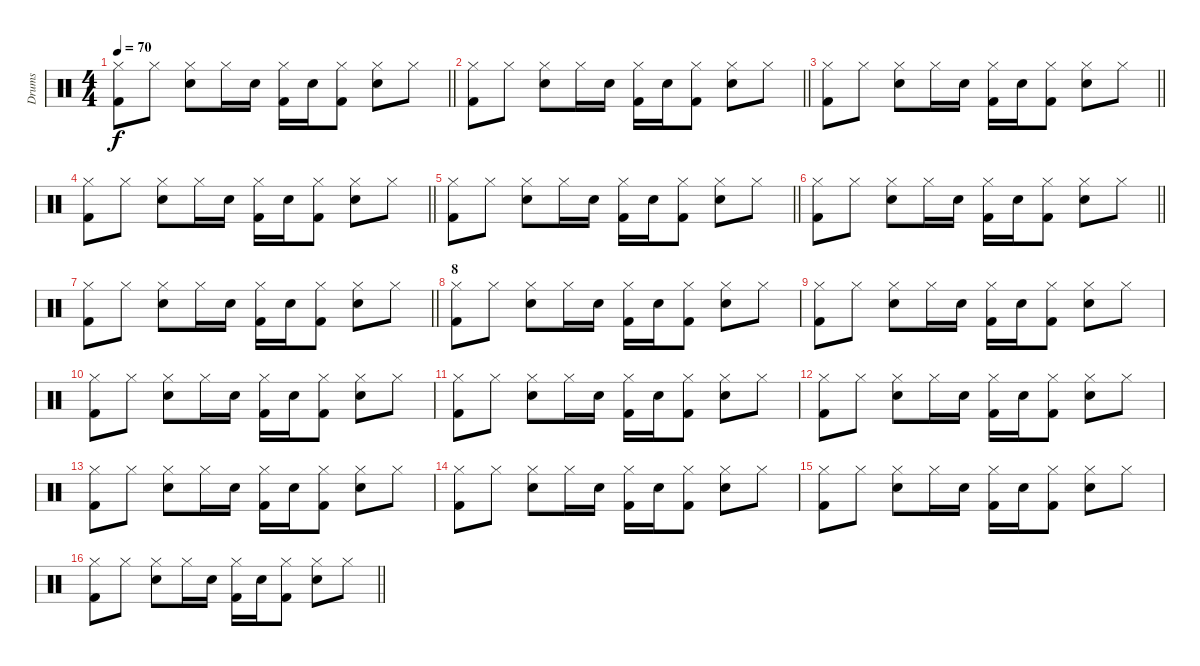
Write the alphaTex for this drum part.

\track ("Drums" "Drums") {instrument percussion}
\staff {score}
\articulation defaults
\ts (4 4)
\tempo 70
\clef neutral
\barLineRight lightlight
\ks c
("Kick (hit) 2" "Hi-Hat (closed)").8{dy f} "Hi-Hat (closed)".8 ("Snare (hit) 2" "Hi-Hat (closed)").8 "Hi-Hat (closed)".16 "Snare (hit) 2".16 ("Kick (hit) 2" "Hi-Hat (closed)").16 "Snare (hit) 2".16 ("Kick (hit) 2" "Hi-Hat (closed)").8 ("Snare (hit) 2" "Hi-Hat (closed)").8 "Hi-Hat (closed)".8 |
\barLineRight lightlight
("Kick (hit) 2" "Hi-Hat (closed)").8 "Hi-Hat (closed)".8 ("Snare (hit) 2" "Hi-Hat (closed)").8 "Hi-Hat (closed)".16 "Snare (hit) 2".16 ("Kick (hit) 2" "Hi-Hat (closed)").16 "Snare (hit) 2".16 ("Kick (hit) 2" "Hi-Hat (closed)").8 ("Snare (hit) 2" "Hi-Hat (closed)").8 "Hi-Hat (closed)".8 |
\barLineRight lightlight
("Kick (hit) 2" "Hi-Hat (closed)").8 "Hi-Hat (closed)".8 ("Snare (hit) 2" "Hi-Hat (closed)").8 "Hi-Hat (closed)".16 "Snare (hit) 2".16 ("Kick (hit) 2" "Hi-Hat (closed)").16 "Snare (hit) 2".16 ("Kick (hit) 2" "Hi-Hat (closed)").8 ("Snare (hit) 2" "Hi-Hat (closed)").8 "Hi-Hat (closed)".8 |
\barLineRight lightlight
("Kick (hit) 2" "Hi-Hat (closed)").8 "Hi-Hat (closed)".8 ("Snare (hit) 2" "Hi-Hat (closed)").8 "Hi-Hat (closed)".16 "Snare (hit) 2".16 ("Kick (hit) 2" "Hi-Hat (closed)").16 "Snare (hit) 2".16 ("Kick (hit) 2" "Hi-Hat (closed)").8 ("Snare (hit) 2" "Hi-Hat (closed)").8 "Hi-Hat (closed)".8 |
\barLineRight lightlight
("Kick (hit) 2" "Hi-Hat (closed)").8 "Hi-Hat (closed)".8 ("Snare (hit) 2" "Hi-Hat (closed)").8 "Hi-Hat (closed)".16 "Snare (hit) 2".16 ("Kick (hit) 2" "Hi-Hat (closed)").16 "Snare (hit) 2".16 ("Kick (hit) 2" "Hi-Hat (closed)").8 ("Snare (hit) 2" "Hi-Hat (closed)").8 "Hi-Hat (closed)".8 |
\barLineRight lightlight
("Kick (hit) 2" "Hi-Hat (closed)").8 "Hi-Hat (closed)".8 ("Snare (hit) 2" "Hi-Hat (closed)").8 "Hi-Hat (closed)".16 "Snare (hit) 2".16 ("Kick (hit) 2" "Hi-Hat (closed)").16 "Snare (hit) 2".16 ("Kick (hit) 2" "Hi-Hat (closed)").8 ("Snare (hit) 2" "Hi-Hat (closed)").8 "Hi-Hat (closed)".8 |
\barLineRight lightlight
("Kick (hit) 2" "Hi-Hat (closed)").8 "Hi-Hat (closed)".8 ("Snare (hit) 2" "Hi-Hat (closed)").8 "Hi-Hat (closed)".16 "Snare (hit) 2".16 ("Kick (hit) 2" "Hi-Hat (closed)").16 "Snare (hit) 2".16 ("Kick (hit) 2" "Hi-Hat (closed)").8 ("Snare (hit) 2" "Hi-Hat (closed)").8 "Hi-Hat (closed)".8 |
\section ("" "8")
("Kick (hit) 2" "Hi-Hat (closed)").8 "Hi-Hat (closed)".8 ("Snare (hit) 2" "Hi-Hat (closed)").8 "Hi-Hat (closed)".16 "Snare (hit) 2".16 ("Kick (hit) 2" "Hi-Hat (closed)").16 "Snare (hit) 2".16 ("Kick (hit) 2" "Hi-Hat (closed)").8 ("Snare (hit) 2" "Hi-Hat (closed)").8 "Hi-Hat (closed)".8 |
("Kick (hit) 2" "Hi-Hat (closed)").8 "Hi-Hat (closed)".8 ("Snare (hit) 2" "Hi-Hat (closed)").8 "Hi-Hat (closed)".16 "Snare (hit) 2".16 ("Kick (hit) 2" "Hi-Hat (closed)").16 "Snare (hit) 2".16 ("Kick (hit) 2" "Hi-Hat (closed)").8 ("Snare (hit) 2" "Hi-Hat (closed)").8 "Hi-Hat (closed)".8 |
("Kick (hit) 2" "Hi-Hat (closed)").8 "Hi-Hat (closed)".8 ("Snare (hit) 2" "Hi-Hat (closed)").8 "Hi-Hat (closed)".16 "Snare (hit) 2".16 ("Kick (hit) 2" "Hi-Hat (closed)").16 "Snare (hit) 2".16 ("Kick (hit) 2" "Hi-Hat (closed)").8 ("Snare (hit) 2" "Hi-Hat (closed)").8 "Hi-Hat (closed)".8 |
("Kick (hit) 2" "Hi-Hat (closed)").8 "Hi-Hat (closed)".8 ("Snare (hit) 2" "Hi-Hat (closed)").8 "Hi-Hat (closed)".16 "Snare (hit) 2".16 ("Kick (hit) 2" "Hi-Hat (closed)").16 "Snare (hit) 2".16 ("Kick (hit) 2" "Hi-Hat (closed)").8 ("Snare (hit) 2" "Hi-Hat (closed)").8 "Hi-Hat (closed)".8 |
("Kick (hit) 2" "Hi-Hat (closed)").8 "Hi-Hat (closed)".8 ("Snare (hit) 2" "Hi-Hat (closed)").8 "Hi-Hat (closed)".16 "Snare (hit) 2".16 ("Kick (hit) 2" "Hi-Hat (closed)").16 "Snare (hit) 2".16 ("Kick (hit) 2" "Hi-Hat (closed)").8 ("Snare (hit) 2" "Hi-Hat (closed)").8 "Hi-Hat (closed)".8 |
("Kick (hit) 2" "Hi-Hat (closed)").8 "Hi-Hat (closed)".8 ("Snare (hit) 2" "Hi-Hat (closed)").8 "Hi-Hat (closed)".16 "Snare (hit) 2".16 ("Kick (hit) 2" "Hi-Hat (closed)").16 "Snare (hit) 2".16 ("Kick (hit) 2" "Hi-Hat (closed)").8 ("Snare (hit) 2" "Hi-Hat (closed)").8 "Hi-Hat (closed)".8 |
("Kick (hit) 2" "Hi-Hat (closed)").8 "Hi-Hat (closed)".8 ("Snare (hit) 2" "Hi-Hat (closed)").8 "Hi-Hat (closed)".16 "Snare (hit) 2".16 ("Kick (hit) 2" "Hi-Hat (closed)").16 "Snare (hit) 2".16 ("Kick (hit) 2" "Hi-Hat (closed)").8 ("Snare (hit) 2" "Hi-Hat (closed)").8 "Hi-Hat (closed)".8 |
("Kick (hit) 2" "Hi-Hat (closed)").8 "Hi-Hat (closed)".8 ("Snare (hit) 2" "Hi-Hat (closed)").8 "Hi-Hat (closed)".16 "Snare (hit) 2".16 ("Kick (hit) 2" "Hi-Hat (closed)").16 "Snare (hit) 2".16 ("Kick (hit) 2" "Hi-Hat (closed)").8 ("Snare (hit) 2" "Hi-Hat (closed)").8 "Hi-Hat (closed)".8 |
\barLineRight lightlight
("Kick (hit) 2" "Hi-Hat (closed)").8 "Hi-Hat (closed)".8 ("Snare (hit) 2" "Hi-Hat (closed)").8 "Hi-Hat (closed)".16 "Snare (hit) 2".16 ("Kick (hit) 2" "Hi-Hat (closed)").16 "Snare (hit) 2".16 ("Kick (hit) 2" "Hi-Hat (closed)").8 ("Snare (hit) 2" "Hi-Hat (closed)").8 "Hi-Hat (closed)".8
